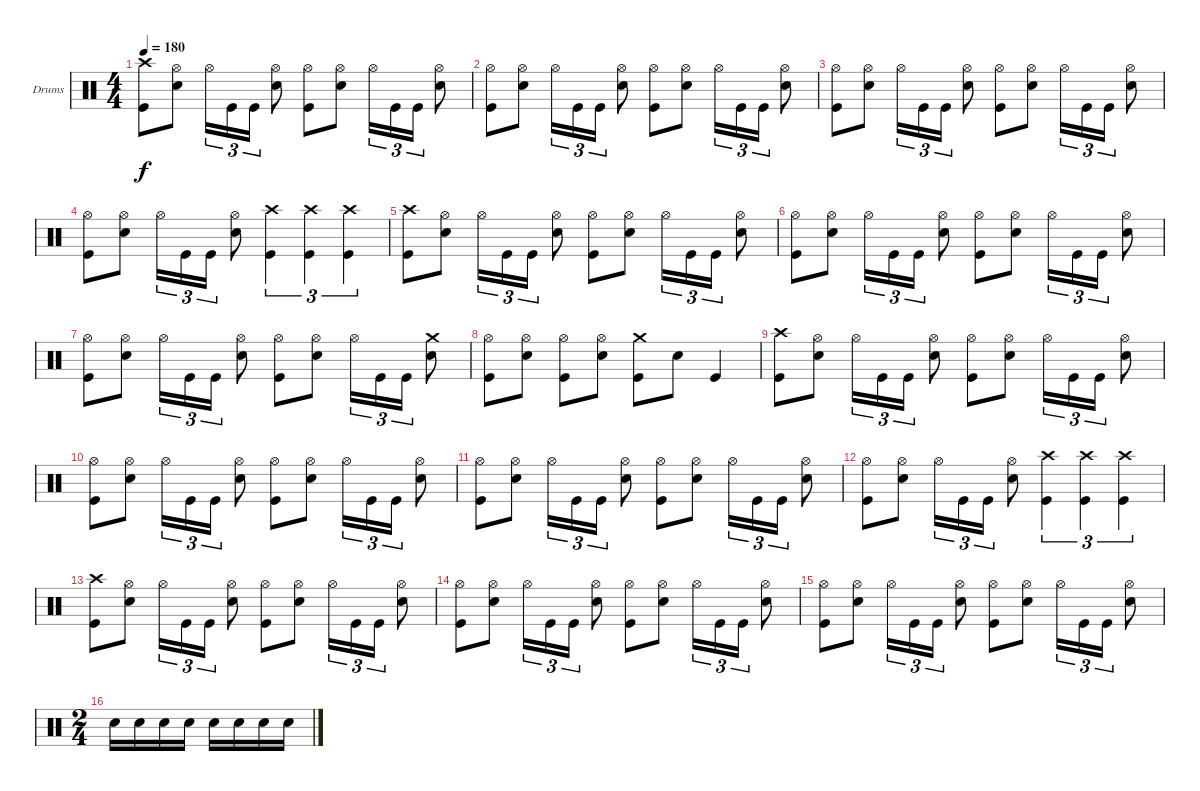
\bracketExtendMode groupsimilarinstruments
\firstSystemTrackNameOrientation horizontal
\otherSystemsTrackNameOrientation horizontal
\track ("Drums" "Drums") {instrument percussion}
\staff {score}
\articulation defaults
\ts (4 4)
\tempo 180
\clef neutral
\ks c
("Crash high (hit)" "Kick (hit)").8{dy f} ("Hi-Hat (open)" "Snare (hit) 2").8 "Hi-Hat (open)".16{tu (3 2)} "Kick (hit)".16{tu (3 2)} "Kick (hit)".16{tu (3 2)} ("Hi-Hat (open)" "Snare (hit) 2").8 ("Hi-Hat (open)" "Kick (hit)").8 ("Hi-Hat (open)" "Snare (hit) 2").8 "Hi-Hat (open)".16{tu (3 2)} "Kick (hit)".16{tu (3 2)} "Kick (hit)".16{tu (3 2)} ("Hi-Hat (open)" "Snare (hit) 2").8 |
("Hi-Hat (open)" "Kick (hit)").8 ("Hi-Hat (open)" "Snare (hit) 2").8 "Hi-Hat (open)".16{tu (3 2)} "Kick (hit)".16{tu (3 2)} "Kick (hit)".16{tu (3 2)} ("Hi-Hat (open)" "Snare (hit) 2").8 ("Hi-Hat (open)" "Kick (hit)").8 ("Hi-Hat (open)" "Snare (hit) 2").8 "Hi-Hat (open)".16{tu (3 2)} "Kick (hit)".16{tu (3 2)} "Kick (hit)".16{tu (3 2)} ("Hi-Hat (open)" "Snare (hit) 2").8 |
("Hi-Hat (open)" "Kick (hit)").8 ("Hi-Hat (open)" "Snare (hit) 2").8 "Hi-Hat (open)".16{tu (3 2)} "Kick (hit)".16{tu (3 2)} "Kick (hit)".16{tu (3 2)} ("Hi-Hat (open)" "Snare (hit) 2").8 ("Hi-Hat (open)" "Kick (hit)").8 ("Hi-Hat (open)" "Snare (hit) 2").8 "Hi-Hat (open)".16{tu (3 2)} "Kick (hit)".16{tu (3 2)} "Kick (hit)".16{tu (3 2)} ("Hi-Hat (open)" "Snare (hit) 2").8 |
("Hi-Hat (open)" "Kick (hit)").8 ("Hi-Hat (open)" "Snare (hit) 2").8 "Hi-Hat (open)".16{tu (3 2)} "Kick (hit)".16{tu (3 2)} "Kick (hit)".16{tu (3 2)} ("Hi-Hat (open)" "Snare (hit) 2").8 ("Crash high (hit)" "Kick (hit)").4{tu (3 2)} ("Crash high (hit)" "Kick (hit)").4{tu (3 2)} ("Crash high (hit)" "Kick (hit)").4{tu (3 2)} |
("Crash high (hit)" "Kick (hit)").8 ("Hi-Hat (open)" "Snare (hit) 2").8 "Hi-Hat (open)".16{tu (3 2)} "Kick (hit)".16{tu (3 2)} "Kick (hit)".16{tu (3 2)} ("Hi-Hat (open)" "Snare (hit) 2").8 ("Hi-Hat (open)" "Kick (hit)").8 ("Hi-Hat (open)" "Snare (hit) 2").8 "Hi-Hat (open)".16{tu (3 2)} "Kick (hit)".16{tu (3 2)} "Kick (hit)".16{tu (3 2)} ("Hi-Hat (open)" "Snare (hit) 2").8 |
("Hi-Hat (open)" "Kick (hit)").8 ("Hi-Hat (open)" "Snare (hit) 2").8 "Hi-Hat (open)".16{tu (3 2)} "Kick (hit)".16{tu (3 2)} "Kick (hit)".16{tu (3 2)} ("Hi-Hat (open)" "Snare (hit) 2").8 ("Hi-Hat (open)" "Kick (hit)").8 ("Hi-Hat (open)" "Snare (hit) 2").8 "Hi-Hat (open)".16{tu (3 2)} "Kick (hit)".16{tu (3 2)} "Kick (hit)".16{tu (3 2)} ("Hi-Hat (open)" "Snare (hit) 2").8 |
("Hi-Hat (open)" "Kick (hit)").8 ("Hi-Hat (open)" "Snare (hit) 2").8 "Hi-Hat (open)".16{tu (3 2)} "Kick (hit)".16{tu (3 2)} "Kick (hit)".16{tu (3 2)} ("Hi-Hat (open)" "Snare (hit) 2").8 ("Hi-Hat (open)" "Kick (hit)").8 ("Hi-Hat (open)" "Snare (hit) 2").8 "Hi-Hat (open)".16{tu (3 2)} "Kick (hit)".16{tu (3 2)} "Kick (hit)".16{tu (3 2)} ("Snare (hit) 2" "Crash medium (hit)").8 |
("Hi-Hat (open)" "Kick (hit)").8 ("Hi-Hat (open)" "Snare (hit) 2").8 ("Hi-Hat (open)" "Kick (hit)").8 ("Hi-Hat (open)" "Snare (hit) 2").8 ("Kick (hit)" "Crash medium (hit)").8 "Snare (hit) 2".8 "Kick (hit)".4 |
("Crash high (hit)" "Kick (hit)").8 ("Hi-Hat (open)" "Snare (hit) 2").8 "Hi-Hat (open)".16{tu (3 2)} "Kick (hit)".16{tu (3 2)} "Kick (hit)".16{tu (3 2)} ("Hi-Hat (open)" "Snare (hit) 2").8 ("Hi-Hat (open)" "Kick (hit)").8 ("Hi-Hat (open)" "Snare (hit) 2").8 "Hi-Hat (open)".16{tu (3 2)} "Kick (hit)".16{tu (3 2)} "Kick (hit)".16{tu (3 2)} ("Hi-Hat (open)" "Snare (hit) 2").8 |
("Hi-Hat (open)" "Kick (hit)").8 ("Hi-Hat (open)" "Snare (hit) 2").8 "Hi-Hat (open)".16{tu (3 2)} "Kick (hit)".16{tu (3 2)} "Kick (hit)".16{tu (3 2)} ("Hi-Hat (open)" "Snare (hit) 2").8 ("Hi-Hat (open)" "Kick (hit)").8 ("Hi-Hat (open)" "Snare (hit) 2").8 "Hi-Hat (open)".16{tu (3 2)} "Kick (hit)".16{tu (3 2)} "Kick (hit)".16{tu (3 2)} ("Hi-Hat (open)" "Snare (hit) 2").8 |
("Hi-Hat (open)" "Kick (hit)").8 ("Hi-Hat (open)" "Snare (hit) 2").8 "Hi-Hat (open)".16{tu (3 2)} "Kick (hit)".16{tu (3 2)} "Kick (hit)".16{tu (3 2)} ("Hi-Hat (open)" "Snare (hit) 2").8 ("Hi-Hat (open)" "Kick (hit)").8 ("Hi-Hat (open)" "Snare (hit) 2").8 "Hi-Hat (open)".16{tu (3 2)} "Kick (hit)".16{tu (3 2)} "Kick (hit)".16{tu (3 2)} ("Hi-Hat (open)" "Snare (hit) 2").8 |
("Hi-Hat (open)" "Kick (hit)").8 ("Hi-Hat (open)" "Snare (hit) 2").8 "Hi-Hat (open)".16{tu (3 2)} "Kick (hit)".16{tu (3 2)} "Kick (hit)".16{tu (3 2)} ("Hi-Hat (open)" "Snare (hit) 2").8 ("Crash high (hit)" "Kick (hit)").4{tu (3 2)} ("Crash high (hit)" "Kick (hit)").4{tu (3 2)} ("Crash high (hit)" "Kick (hit)").4{tu (3 2)} |
("Crash high (hit)" "Kick (hit)").8 ("Hi-Hat (open)" "Snare (hit) 2").8 "Hi-Hat (open)".16{tu (3 2)} "Kick (hit)".16{tu (3 2)} "Kick (hit)".16{tu (3 2)} ("Hi-Hat (open)" "Snare (hit) 2").8 ("Hi-Hat (open)" "Kick (hit)").8 ("Hi-Hat (open)" "Snare (hit) 2").8 "Hi-Hat (open)".16{tu (3 2)} "Kick (hit)".16{tu (3 2)} "Kick (hit)".16{tu (3 2)} ("Hi-Hat (open)" "Snare (hit) 2").8 |
("Hi-Hat (open)" "Kick (hit)").8 ("Hi-Hat (open)" "Snare (hit) 2").8 "Hi-Hat (open)".16{tu (3 2)} "Kick (hit)".16{tu (3 2)} "Kick (hit)".16{tu (3 2)} ("Hi-Hat (open)" "Snare (hit) 2").8 ("Hi-Hat (open)" "Kick (hit)").8 ("Hi-Hat (open)" "Snare (hit) 2").8 "Hi-Hat (open)".16{tu (3 2)} "Kick (hit)".16{tu (3 2)} "Kick (hit)".16{tu (3 2)} ("Hi-Hat (open)" "Snare (hit) 2").8 |
("Hi-Hat (open)" "Kick (hit)").8 ("Hi-Hat (open)" "Snare (hit) 2").8 "Hi-Hat (open)".16{tu (3 2)} "Kick (hit)".16{tu (3 2)} "Kick (hit)".16{tu (3 2)} ("Hi-Hat (open)" "Snare (hit) 2").8 ("Hi-Hat (open)" "Kick (hit)").8 ("Hi-Hat (open)" "Snare (hit) 2").8 "Hi-Hat (open)".16{tu (3 2)} "Kick (hit)".16{tu (3 2)} "Kick (hit)".16{tu (3 2)} ("Hi-Hat (open)" "Snare (hit) 2").8 |
\ts (2 4)
"Snare (hit) 2".16 "Snare (hit) 2".16 "Snare (hit) 2".16 "Snare (hit) 2".16 "Snare (hit) 2".16 "Snare (hit) 2".16 "Snare (hit) 2".16 "Snare (hit) 2".16
